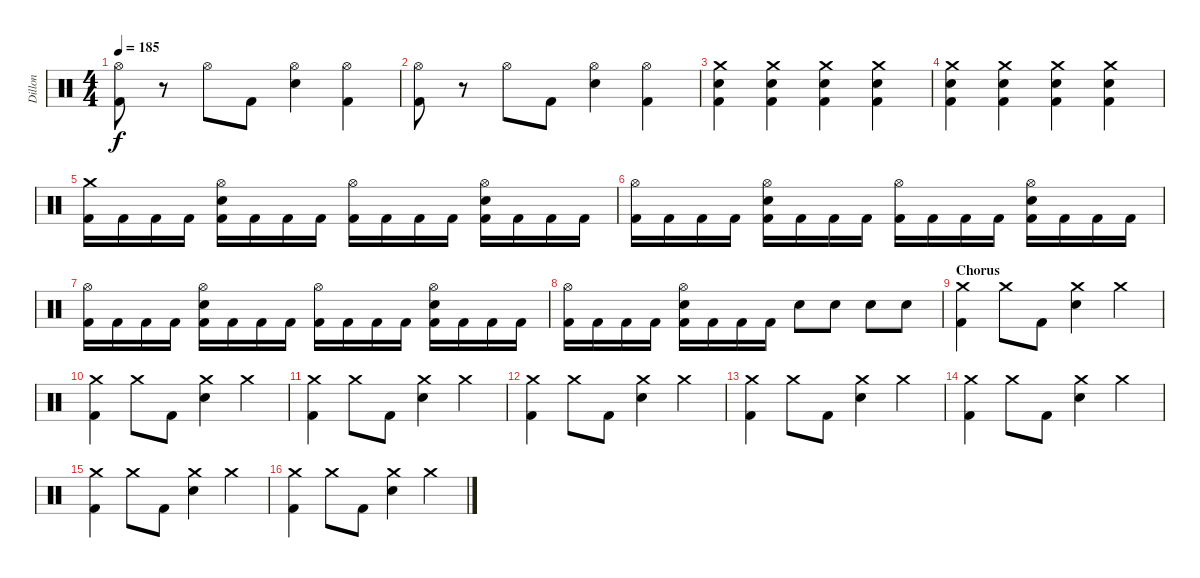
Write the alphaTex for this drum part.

\track ("Dillon" "Dillon") {instrument percussion}
\staff {score}
\articulation defaults
\ts (4 4)
\tempo 185
\clef neutral
\ks c
("Hi-Hat (open)" "Kick (hit) 2").8{dy f} r.8 "Hi-Hat (open)".8 "Kick (hit) 2".8 ("Hi-Hat (open)" "Electric Snare (hit)").4 ("Hi-Hat (open)" "Kick (hit) 2").4 |
("Hi-Hat (open)" "Kick (hit) 2").8 r.8 "Hi-Hat (open)".8 "Kick (hit) 2".8 ("Hi-Hat (open)" "Electric Snare (hit)").4 ("Hi-Hat (open)" "Kick (hit) 2").4 |
("Crash medium (hit)" "Electric Snare (hit)" "Kick (hit) 2").4 ("Crash medium (hit)" "Electric Snare (hit)" "Kick (hit) 2").4 ("Crash medium (hit)" "Electric Snare (hit)" "Kick (hit) 2").4 ("Crash medium (hit)" "Electric Snare (hit)" "Kick (hit) 2").4 |
("Crash medium (hit)" "Electric Snare (hit)" "Kick (hit) 2").4 ("Crash medium (hit)" "Electric Snare (hit)" "Kick (hit) 2").4 ("Crash medium (hit)" "Electric Snare (hit)" "Kick (hit) 2").4 ("Crash medium (hit)" "Electric Snare (hit)" "Kick (hit) 2").4 |
("Crash medium (hit)" "Kick (hit) 2").16 "Kick (hit) 2".16 "Kick (hit) 2".16 "Kick (hit) 2".16 ("Hi-Hat (open)" "Electric Snare (hit)" "Kick (hit) 2").16 "Kick (hit) 2".16 "Kick (hit) 2".16 "Kick (hit) 2".16 ("Hi-Hat (open)" "Kick (hit) 2").16 "Kick (hit) 2".16 "Kick (hit) 2".16 "Kick (hit) 2".16 ("Hi-Hat (open)" "Electric Snare (hit)" "Kick (hit) 2").16 "Kick (hit) 2".16 "Kick (hit) 2".16 "Kick (hit) 2".16 |
("Hi-Hat (open)" "Kick (hit) 2").16 "Kick (hit) 2".16 "Kick (hit) 2".16 "Kick (hit) 2".16 ("Hi-Hat (open)" "Electric Snare (hit)" "Kick (hit) 2").16 "Kick (hit) 2".16 "Kick (hit) 2".16 "Kick (hit) 2".16 ("Hi-Hat (open)" "Kick (hit) 2").16 "Kick (hit) 2".16 "Kick (hit) 2".16 "Kick (hit) 2".16 ("Hi-Hat (open)" "Electric Snare (hit)" "Kick (hit) 2").16 "Kick (hit) 2".16 "Kick (hit) 2".16 "Kick (hit) 2".16 |
("Hi-Hat (open)" "Kick (hit) 2").16 "Kick (hit) 2".16 "Kick (hit) 2".16 "Kick (hit) 2".16 ("Hi-Hat (open)" "Electric Snare (hit)" "Kick (hit) 2").16 "Kick (hit) 2".16 "Kick (hit) 2".16 "Kick (hit) 2".16 ("Hi-Hat (open)" "Kick (hit) 2").16 "Kick (hit) 2".16 "Kick (hit) 2".16 "Kick (hit) 2".16 ("Hi-Hat (open)" "Electric Snare (hit)" "Kick (hit) 2").16 "Kick (hit) 2".16 "Kick (hit) 2".16 "Kick (hit) 2".16 |
("Hi-Hat (open)" "Kick (hit) 2").16 "Kick (hit) 2".16 "Kick (hit) 2".16 "Kick (hit) 2".16 ("Hi-Hat (open)" "Electric Snare (hit)" "Kick (hit) 2").16 "Kick (hit) 2".16 "Kick (hit) 2".16 "Kick (hit) 2".16 "Electric Snare (hit)".8 "Electric Snare (hit)".8 "Electric Snare (hit)".8 "Electric Snare (hit)".8 |
\section ("" "Chorus")
("Crash medium (hit)" "Kick (hit) 2").4 "Crash medium (hit)".8 "Kick (hit) 2".8 ("Crash medium (hit)" "Electric Snare (hit)").4 "Crash medium (hit)".4 |
("Crash medium (hit)" "Kick (hit) 2").4 "Crash medium (hit)".8 "Kick (hit) 2".8 ("Crash medium (hit)" "Electric Snare (hit)").4 "Crash medium (hit)".4 |
("Crash medium (hit)" "Kick (hit) 2").4 "Crash medium (hit)".8 "Kick (hit) 2".8 ("Crash medium (hit)" "Electric Snare (hit)").4 "Crash medium (hit)".4 |
("Crash medium (hit)" "Kick (hit) 2").4 "Crash medium (hit)".8 "Kick (hit) 2".8 ("Crash medium (hit)" "Electric Snare (hit)").4 "Crash medium (hit)".4 |
("Crash medium (hit)" "Kick (hit) 2").4 "Crash medium (hit)".8 "Kick (hit) 2".8 ("Crash medium (hit)" "Electric Snare (hit)").4 "Crash medium (hit)".4 |
("Crash medium (hit)" "Kick (hit) 2").4 "Crash medium (hit)".8 "Kick (hit) 2".8 ("Crash medium (hit)" "Electric Snare (hit)").4 "Crash medium (hit)".4 |
("Crash medium (hit)" "Kick (hit) 2").4 "Crash medium (hit)".8 "Kick (hit) 2".8 ("Crash medium (hit)" "Electric Snare (hit)").4 "Crash medium (hit)".4 |
("Crash medium (hit)" "Kick (hit) 2").4 "Crash medium (hit)".8 "Kick (hit) 2".8 ("Crash medium (hit)" "Electric Snare (hit)").4 "Crash medium (hit)".4
